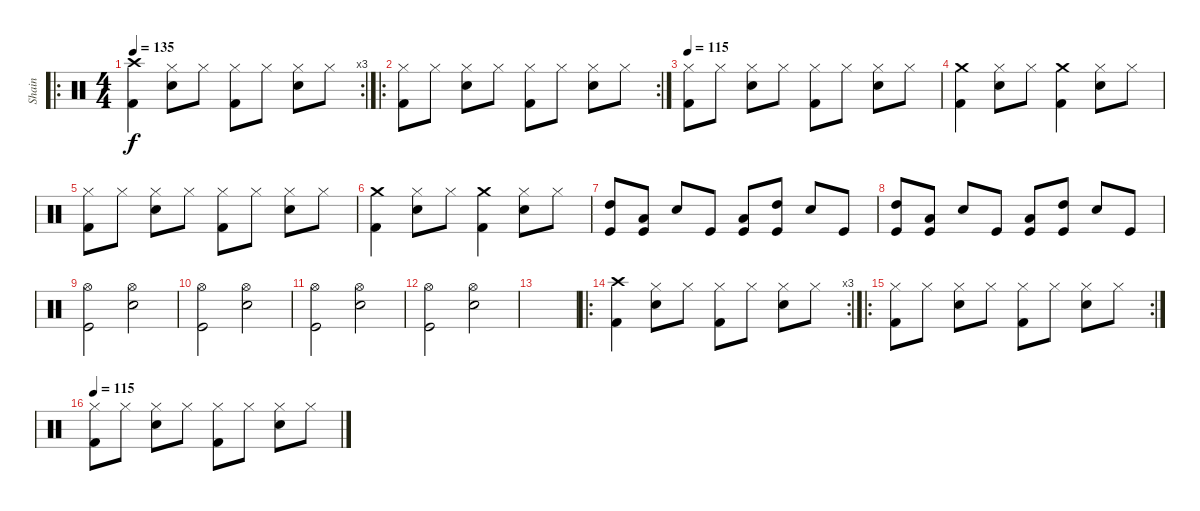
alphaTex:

\track ("Shain" "Shain") {instrument percussion}
\staff {score}
\articulation defaults
\ro
\rc 3
\ts (4 4)
\tempo 135
\clef neutral
\ks c
("Kick (hit) 2" "Crash high (hit)").4{dy f} ("Hi-Hat (closed)" "Electric Snare (hit)").8 "Hi-Hat (closed)".8 ("Hi-Hat (closed)" "Kick (hit) 2").8 "Hi-Hat (closed)".8 ("Hi-Hat (closed)" "Electric Snare (hit)").8 "Hi-Hat (closed)".8 |
\ro
\rc 2
("Hi-Hat (closed)" "Kick (hit) 2").8 "Hi-Hat (closed)".8 ("Hi-Hat (closed)" "Electric Snare (hit)").8 "Hi-Hat (closed)".8 ("Hi-Hat (closed)" "Kick (hit) 2").8 "Hi-Hat (closed)".8 ("Hi-Hat (closed)" "Electric Snare (hit)").8 "Hi-Hat (closed)".8 |
\tempo 115
("Hi-Hat (closed)" "Kick (hit) 2").8 "Hi-Hat (closed)".8 ("Hi-Hat (closed)" "Electric Snare (hit)").8 "Hi-Hat (closed)".8 ("Hi-Hat (closed)" "Kick (hit) 2").8 "Hi-Hat (closed)".8 ("Hi-Hat (closed)" "Electric Snare (hit)").8 "Hi-Hat (closed)".8 |
("Crash medium (hit)" "Kick (hit) 2").4 ("Hi-Hat (closed)" "Electric Snare (hit)").8 "Hi-Hat (closed)".8 ("Crash medium (hit)" "Kick (hit) 2").4 ("Hi-Hat (closed)" "Electric Snare (hit)").8 "Hi-Hat (closed)".8 |
("Hi-Hat (closed)" "Kick (hit) 2").8 "Hi-Hat (closed)".8 ("Hi-Hat (closed)" "Electric Snare (hit)").8 "Hi-Hat (closed)".8 ("Hi-Hat (closed)" "Kick (hit) 2").8 "Hi-Hat (closed)".8 ("Hi-Hat (closed)" "Electric Snare (hit)").8 "Hi-Hat (closed)".8 |
("Crash medium (hit)" "Kick (hit) 2").4 ("Hi-Hat (closed)" "Electric Snare (hit)").8 "Hi-Hat (closed)".8 ("Crash medium (hit)" "Kick (hit) 2").4 ("Hi-Hat (closed)" "Electric Snare (hit)").8 "Hi-Hat (closed)".8 |
("High Tom (hit)" "Kick (hit)").8 ("Low Tom (hit)" "Kick (hit)").8 "Electric Snare (hit)".8 "Kick (hit)".8 ("Low Tom (hit)" "Kick (hit)").8 ("High Tom (hit)" "Kick (hit)").8 "Electric Snare (hit)".8 "Kick (hit)".8 |
("High Tom (hit)" "Kick (hit)").8 ("Low Tom (hit)" "Kick (hit)").8 "Electric Snare (hit)".8 "Kick (hit)".8 ("Low Tom (hit)" "Kick (hit)").8 ("High Tom (hit)" "Kick (hit)").8 "Electric Snare (hit)".8 "Kick (hit)".8 |
("Hi-Hat (open)" "Kick (hit)").2 ("Hi-Hat (open)" "Electric Snare (hit)").2 |
("Hi-Hat (open)" "Kick (hit)").2 ("Hi-Hat (open)" "Electric Snare (hit)").2 |
("Hi-Hat (open)" "Kick (hit)").2 ("Hi-Hat (open)" "Electric Snare (hit)").2 |
("Hi-Hat (open)" "Kick (hit)").2 ("Hi-Hat (open)" "Electric Snare (hit)").2 |
|
\ro
\rc 3
("Kick (hit) 2" "Crash high (hit)").4 ("Hi-Hat (closed)" "Electric Snare (hit)").8 "Hi-Hat (closed)".8 ("Hi-Hat (closed)" "Kick (hit) 2").8 "Hi-Hat (closed)".8 ("Hi-Hat (closed)" "Electric Snare (hit)").8 "Hi-Hat (closed)".8 |
\ro
\rc 2
("Hi-Hat (closed)" "Kick (hit) 2").8 "Hi-Hat (closed)".8 ("Hi-Hat (closed)" "Electric Snare (hit)").8 "Hi-Hat (closed)".8 ("Hi-Hat (closed)" "Kick (hit) 2").8 "Hi-Hat (closed)".8 ("Hi-Hat (closed)" "Electric Snare (hit)").8 "Hi-Hat (closed)".8 |
\tempo 115
("Hi-Hat (closed)" "Kick (hit) 2").8 "Hi-Hat (closed)".8 ("Hi-Hat (closed)" "Electric Snare (hit)").8 "Hi-Hat (closed)".8 ("Hi-Hat (closed)" "Kick (hit) 2").8 "Hi-Hat (closed)".8 ("Hi-Hat (closed)" "Electric Snare (hit)").8 "Hi-Hat (closed)".8
